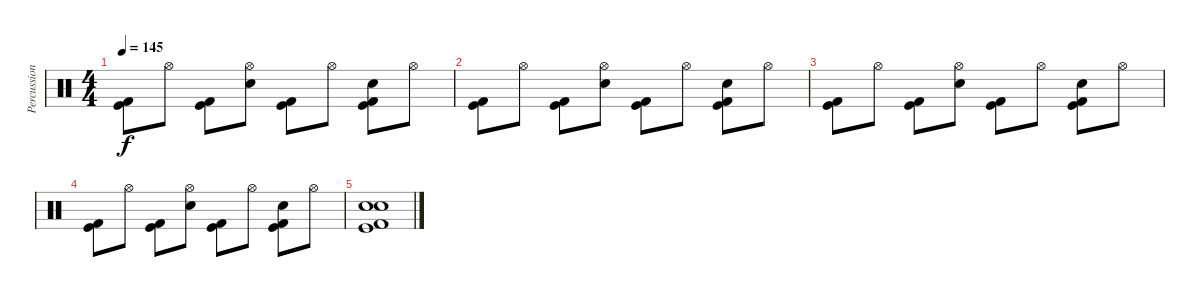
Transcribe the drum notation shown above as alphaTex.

\track ("Percussion" "Percussion") {instrument percussion}
\staff {score}
\articulation defaults
\ts (4 4)
\tempo 145
\clef neutral
\ks c
("Kick (hit)" "Kick (hit) 2").8{dy f} "Hi-Hat (open)".8 ("Kick (hit)" "Kick (hit) 2").8 ("Hi-Hat (open)" "Snare (hit) 2").8 ("Kick (hit)" "Kick (hit) 2").8 "Hi-Hat (open)".8 ("Electric Snare (hit)" "Kick (hit)" "Kick (hit) 2").8 "Hi-Hat (open)".8 |
("Kick (hit)" "Kick (hit) 2").8 "Hi-Hat (open)".8 ("Kick (hit)" "Kick (hit) 2").8 ("Hi-Hat (open)" "Snare (hit) 2").8 ("Kick (hit)" "Kick (hit) 2").8 "Hi-Hat (open)".8 ("Electric Snare (hit)" "Kick (hit)" "Kick (hit) 2").8 "Hi-Hat (open)".8 |
("Kick (hit)" "Kick (hit) 2").8 "Hi-Hat (open)".8 ("Kick (hit)" "Kick (hit) 2").8 ("Hi-Hat (open)" "Snare (hit) 2").8 ("Kick (hit)" "Kick (hit) 2").8 "Hi-Hat (open)".8 ("Electric Snare (hit)" "Kick (hit)" "Kick (hit) 2").8 "Hi-Hat (open)".8 |
("Kick (hit)" "Kick (hit) 2").8 "Hi-Hat (open)".8 ("Kick (hit)" "Kick (hit) 2").8 ("Hi-Hat (open)" "Snare (hit) 2").8 ("Kick (hit)" "Kick (hit) 2").8 "Hi-Hat (open)".8 ("Electric Snare (hit)" "Kick (hit)" "Kick (hit) 2").8 "Hi-Hat (open)".8 |
("Electric Snare (hit)" "Snare (hit) 2" "Kick (hit)" "Kick (hit) 2").1
